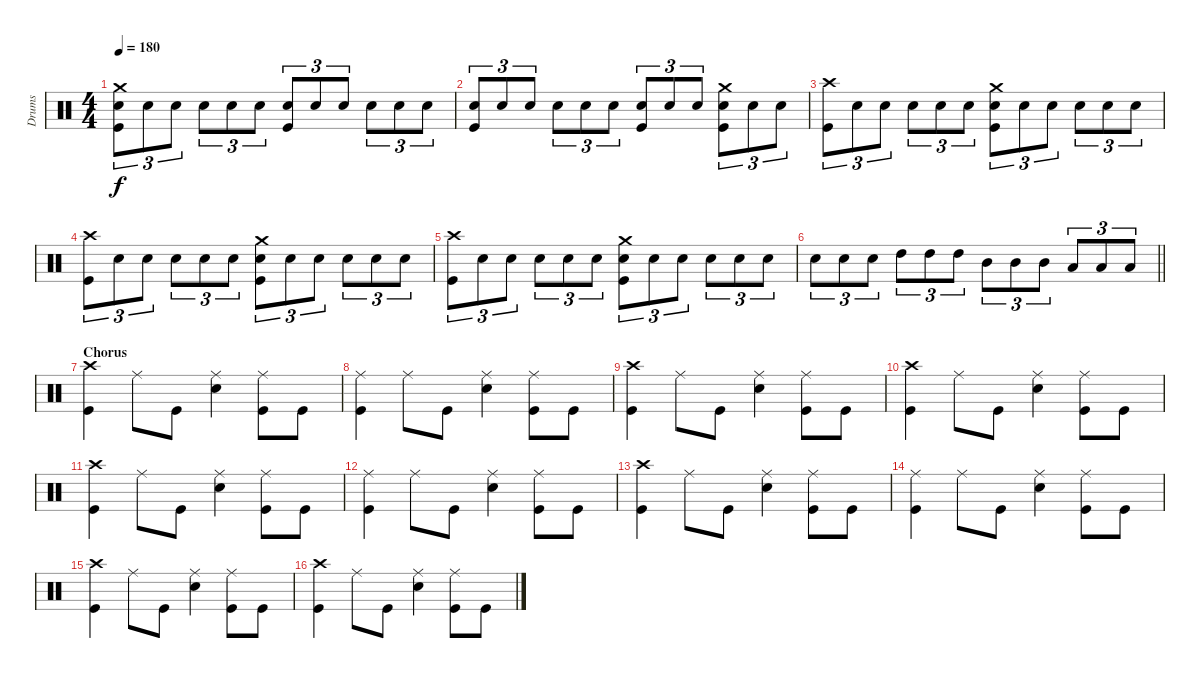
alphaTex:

\track ("Drums" "Drums") {instrument percussion}
\staff {score}
\articulation defaults
\ts (4 4)
\tempo 180
\clef neutral
\ks c
("Crash medium (hit)" "Electric Snare (hit)" "Kick (hit)").8{tu (3 2) dy f} "Electric Snare (hit)".8{tu (3 2)} "Electric Snare (hit)".8{tu (3 2)} "Electric Snare (hit)".8{tu (3 2)} "Electric Snare (hit)".8{tu (3 2)} "Electric Snare (hit)".8{tu (3 2)} ("Electric Snare (hit)" "Kick (hit)").8{tu (3 2)} "Electric Snare (hit)".8{tu (3 2)} "Electric Snare (hit)".8{tu (3 2)} "Electric Snare (hit)".8{tu (3 2)} "Electric Snare (hit)".8{tu (3 2)} "Electric Snare (hit)".8{tu (3 2)} |
("Electric Snare (hit)" "Kick (hit)").8{tu (3 2)} "Electric Snare (hit)".8{tu (3 2)} "Electric Snare (hit)".8{tu (3 2)} "Electric Snare (hit)".8{tu (3 2)} "Electric Snare (hit)".8{tu (3 2)} "Electric Snare (hit)".8{tu (3 2)} ("Electric Snare (hit)" "Kick (hit)").8{tu (3 2)} "Electric Snare (hit)".8{tu (3 2)} "Electric Snare (hit)".8{tu (3 2)} ("Crash medium (hit)" "Electric Snare (hit)" "Kick (hit)").8{tu (3 2)} "Electric Snare (hit)".8{tu (3 2)} "Electric Snare (hit)".8{tu (3 2)} |
("Crash high (hit)" "Kick (hit)").8{tu (3 2)} "Electric Snare (hit)".8{tu (3 2)} "Electric Snare (hit)".8{tu (3 2)} "Electric Snare (hit)".8{tu (3 2)} "Electric Snare (hit)".8{tu (3 2)} "Electric Snare (hit)".8{tu (3 2)} ("Crash medium (hit)" "Electric Snare (hit)" "Kick (hit)").8{tu (3 2)} "Electric Snare (hit)".8{tu (3 2)} "Electric Snare (hit)".8{tu (3 2)} "Electric Snare (hit)".8{tu (3 2)} "Electric Snare (hit)".8{tu (3 2)} "Electric Snare (hit)".8{tu (3 2)} |
("Crash high (hit)" "Kick (hit)").8{tu (3 2)} "Electric Snare (hit)".8{tu (3 2)} "Electric Snare (hit)".8{tu (3 2)} "Electric Snare (hit)".8{tu (3 2)} "Electric Snare (hit)".8{tu (3 2)} "Electric Snare (hit)".8{tu (3 2)} ("Crash medium (hit)" "Electric Snare (hit)" "Kick (hit)").8{tu (3 2)} "Electric Snare (hit)".8{tu (3 2)} "Electric Snare (hit)".8{tu (3 2)} "Electric Snare (hit)".8{tu (3 2)} "Electric Snare (hit)".8{tu (3 2)} "Electric Snare (hit)".8{tu (3 2)} |
("Crash high (hit)" "Kick (hit)").8{tu (3 2)} "Electric Snare (hit)".8{tu (3 2)} "Electric Snare (hit)".8{tu (3 2)} "Electric Snare (hit)".8{tu (3 2)} "Electric Snare (hit)".8{tu (3 2)} "Electric Snare (hit)".8{tu (3 2)} ("Crash medium (hit)" "Electric Snare (hit)" "Kick (hit)").8{tu (3 2)} "Electric Snare (hit)".8{tu (3 2)} "Electric Snare (hit)".8{tu (3 2)} "Electric Snare (hit)".8{tu (3 2)} "Electric Snare (hit)".8{tu (3 2)} "Electric Snare (hit)".8{tu (3 2)} |
\barLineRight lightlight "Electric Snare (hit)".8{tu (3 2)} "Electric Snare (hit)".8{tu (3 2)} "Electric Snare (hit)".8{tu (3 2)} "High Tom (hit)".8{tu (3 2)} "High Tom (hit)".8{tu (3 2)} "High Tom (hit)".8{tu (3 2)} "Mid Tom (hit)".8{tu (3 2)} "Mid Tom (hit)".8{tu (3 2)} "Mid Tom (hit)".8{tu (3 2)} "Low Tom (hit)".8{tu (3 2)} "Low Tom (hit)".8{tu (3 2)} "Low Tom (hit)".8{tu (3 2)}
|
\section ("" "Chorus")
("Crash high (hit)" "Kick (hit)").4 "Ride (middle)".8 "Kick (hit)".8 ("Ride (middle)" "Electric Snare (hit)").4 ("Ride (middle)" "Kick (hit)").8 "Kick (hit)".8 |
("Ride (middle)" "Kick (hit)").4 "Ride (middle)".8 "Kick (hit)".8 ("Ride (middle)" "Electric Snare (hit)").4 ("Ride (middle)" "Kick (hit)").8 "Kick (hit)".8 |
("Crash high (hit)" "Kick (hit)").4 "Ride (middle)".8 "Kick (hit)".8 ("Ride (middle)" "Electric Snare (hit)").4 ("Ride (middle)" "Kick (hit)").8 "Kick (hit)".8 |
("Crash high (hit)" "Kick (hit)").4 "Ride (middle)".8 "Kick (hit)".8 ("Ride (middle)" "Electric Snare (hit)").4 ("Ride (middle)" "Kick (hit)").8 "Kick (hit)".8 |
("Crash high (hit)" "Kick (hit)").4 "Ride (middle)".8 "Kick (hit)".8 ("Ride (middle)" "Electric Snare (hit)").4 ("Ride (middle)" "Kick (hit)").8 "Kick (hit)".8 |
("Ride (middle)" "Kick (hit)").4 "Ride (middle)".8 "Kick (hit)".8 ("Ride (middle)" "Electric Snare (hit)").4 ("Ride (middle)" "Kick (hit)").8 "Kick (hit)".8 |
("Crash high (hit)" "Kick (hit)").4 "Ride (middle)".8 "Kick (hit)".8 ("Ride (middle)" "Electric Snare (hit)").4 ("Ride (middle)" "Kick (hit)").8 "Kick (hit)".8 |
("Ride (middle)" "Kick (hit)").4 "Ride (middle)".8 "Kick (hit)".8 ("Ride (middle)" "Electric Snare (hit)").4 ("Ride (middle)" "Kick (hit)").8 "Kick (hit)".8 |
("Crash high (hit)" "Kick (hit)").4 "Ride (middle)".8 "Kick (hit)".8 ("Ride (middle)" "Electric Snare (hit)").4 ("Ride (middle)" "Kick (hit)").8 "Kick (hit)".8 |
("Crash high (hit)" "Kick (hit)").4 "Ride (middle)".8 "Kick (hit)".8 ("Ride (middle)" "Electric Snare (hit)").4 ("Ride (middle)" "Kick (hit)").8 "Kick (hit)".8
